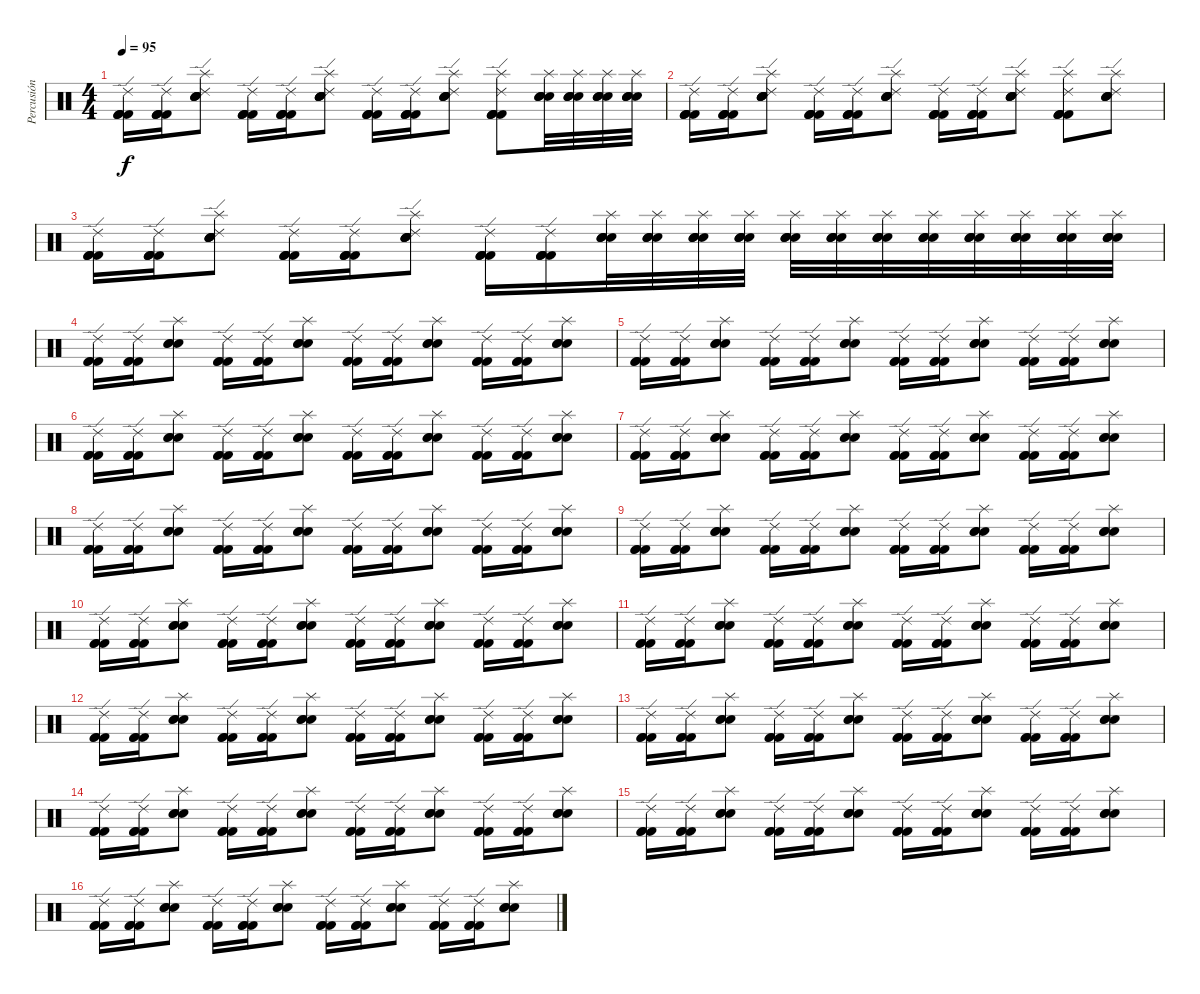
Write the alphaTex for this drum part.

\track ("Percusión" "Percusión") {instrument percussion}
\staff {score}
\articulation defaults
\ts (4 4)
\tempo 95
\clef neutral
\ks c
("Kick (hit) 2" "Kick (hit) 2" "Ride (edge) 2" "Kick (hit) 2" "Kick (hit) 2").16{dy f} ("Kick (hit) 2" "Kick (hit) 2" "Ride (edge) 2" "Kick (hit) 2" "Kick (hit) 2").16 ("Electric Snare (hit)" "Electric Snare (hit)" "Splash (hit)" "Ride (edge) 2" "Electric Snare (hit)" "Electric Snare (hit)").8 ("Kick (hit) 2" "Kick (hit) 2" "Ride (edge) 2" "Kick (hit) 2" "Kick (hit) 2").16 ("Kick (hit) 2" "Kick (hit) 2" "Ride (edge) 2" "Kick (hit) 2" "Kick (hit) 2").16 ("Electric Snare (hit)" "Electric Snare (hit)" "Splash (hit)" "Ride (edge) 2" "Electric Snare (hit)" "Electric Snare (hit)").8 ("Kick (hit) 2" "Kick (hit) 2" "Ride (edge) 2" "Kick (hit) 2" "Kick (hit) 2").16 ("Kick (hit) 2" "Kick (hit) 2" "Ride (edge) 2" "Kick (hit) 2" "Kick (hit) 2").16 ("Electric Snare (hit)" "Electric Snare (hit)" "Splash (hit)" "Ride (edge) 2" "Electric Snare (hit)" "Electric Snare (hit)").8 ("Kick (hit) 2" "Kick (hit) 2" "Splash (hit)" "Ride (edge) 2" "Kick (hit) 2" "Kick (hit) 2").8 ("Electric Snare (hit)" "Electric Snare (hit)" "Splash (hit)" "Electric Snare (hit)" "Electric Snare (hit)").32 ("Electric Snare (hit)" "Electric Snare (hit)" "Splash (hit)" "Electric Snare (hit)" "Electric Snare (hit)").32 ("Electric Snare (hit)" "Electric Snare (hit)" "Splash (hit)" "Electric Snare (hit)" "Electric Snare (hit)").32 ("Electric Snare (hit)" "Electric Snare (hit)" "Splash (hit)" "Electric Snare (hit)" "Electric Snare (hit)").32 |
("Kick (hit) 2" "Kick (hit) 2" "Ride (edge) 2" "Kick (hit) 2" "Kick (hit) 2").16 ("Kick (hit) 2" "Kick (hit) 2" "Ride (edge) 2" "Kick (hit) 2" "Kick (hit) 2").16 ("Electric Snare (hit)" "Electric Snare (hit)" "Splash (hit)" "Ride (edge) 2" "Electric Snare (hit)" "Electric Snare (hit)").8 ("Kick (hit) 2" "Kick (hit) 2" "Ride (edge) 2" "Kick (hit) 2" "Kick (hit) 2").16 ("Kick (hit) 2" "Kick (hit) 2" "Ride (edge) 2" "Kick (hit) 2" "Kick (hit) 2").16 ("Electric Snare (hit)" "Electric Snare (hit)" "Splash (hit)" "Ride (edge) 2" "Electric Snare (hit)" "Electric Snare (hit)").8 ("Kick (hit) 2" "Kick (hit) 2" "Ride (edge) 2" "Kick (hit) 2" "Kick (hit) 2").16 ("Kick (hit) 2" "Kick (hit) 2" "Ride (edge) 2" "Kick (hit) 2" "Kick (hit) 2").16 ("Electric Snare (hit)" "Electric Snare (hit)" "Splash (hit)" "Ride (edge) 2" "Electric Snare (hit)" "Electric Snare (hit)").8 ("Kick (hit) 2" "Kick (hit) 2" "Splash (hit)" "Ride (edge) 2" "Kick (hit) 2" "Kick (hit) 2").8 ("Electric Snare (hit)" "Electric Snare (hit)" "Splash (hit)" "Ride (edge) 2" "Electric Snare (hit)" "Electric Snare (hit)").8 |
("Kick (hit) 2" "Kick (hit) 2" "Ride (edge) 2" "Kick (hit) 2" "Kick (hit) 2").16 ("Kick (hit) 2" "Kick (hit) 2" "Ride (edge) 2" "Kick (hit) 2" "Kick (hit) 2").16 ("Electric Snare (hit)" "Electric Snare (hit)" "Splash (hit)" "Ride (edge) 2" "Electric Snare (hit)" "Electric Snare (hit)").8 ("Kick (hit) 2" "Kick (hit) 2" "Ride (edge) 2" "Kick (hit) 2" "Kick (hit) 2").16 ("Kick (hit) 2" "Kick (hit) 2" "Ride (edge) 2" "Kick (hit) 2" "Kick (hit) 2").16 ("Electric Snare (hit)" "Electric Snare (hit)" "Splash (hit)" "Ride (edge) 2" "Electric Snare (hit)" "Electric Snare (hit)").8 ("Kick (hit) 2" "Kick (hit) 2" "Ride (edge) 2" "Kick (hit) 2" "Kick (hit) 2").16 ("Kick (hit) 2" "Kick (hit) 2" "Ride (edge) 2" "Kick (hit) 2" "Kick (hit) 2").16 ("Electric Snare (hit)" "Electric Snare (hit)" "Splash (hit)" "Electric Snare (hit)" "Electric Snare (hit)").32 ("Electric Snare (hit)" "Electric Snare (hit)" "Splash (hit)" "Electric Snare (hit)" "Electric Snare (hit)").32 ("Electric Snare (hit)" "Electric Snare (hit)" "Splash (hit)" "Electric Snare (hit)" "Electric Snare (hit)").32 ("Electric Snare (hit)" "Electric Snare (hit)" "Splash (hit)" "Electric Snare (hit)" "Electric Snare (hit)").32 ("Electric Snare (hit)" "Electric Snare (hit)" "Splash (hit)" "Electric Snare (hit)" "Electric Snare (hit)").32 ("Electric Snare (hit)" "Electric Snare (hit)" "Splash (hit)" "Electric Snare (hit)" "Electric Snare (hit)").32 ("Electric Snare (hit)" "Electric Snare (hit)" "Splash (hit)" "Electric Snare (hit)" "Electric Snare (hit)").32 ("Electric Snare (hit)" "Electric Snare (hit)" "Splash (hit)" "Electric Snare (hit)" "Electric Snare (hit)").32 ("Electric Snare (hit)" "Electric Snare (hit)" "Splash (hit)" "Electric Snare (hit)" "Electric Snare (hit)").32 ("Electric Snare (hit)" "Electric Snare (hit)" "Splash (hit)" "Electric Snare (hit)" "Electric Snare (hit)").32 ("Electric Snare (hit)" "Electric Snare (hit)" "Splash (hit)" "Electric Snare (hit)" "Electric Snare (hit)").32 ("Electric Snare (hit)" "Electric Snare (hit)" "Splash (hit)" "Electric Snare (hit)" "Electric Snare (hit)").32 |
("Kick (hit) 2" "Ride (edge) 2" "Kick (hit) 2" "Kick (hit) 2").16 ("Kick (hit) 2" "Ride (edge) 2" "Kick (hit) 2" "Kick (hit) 2").16 ("Electric Snare (hit)" "Splash (hit)" "Electric Snare (hit)" "Electric Snare (hit)").8 ("Kick (hit) 2" "Ride (edge) 2" "Kick (hit) 2" "Kick (hit) 2").16 ("Kick (hit) 2" "Ride (edge) 2" "Kick (hit) 2" "Kick (hit) 2").16 ("Electric Snare (hit)" "Splash (hit)" "Electric Snare (hit)" "Electric Snare (hit)").8 ("Kick (hit) 2" "Ride (edge) 2" "Kick (hit) 2" "Kick (hit) 2").16 ("Kick (hit) 2" "Ride (edge) 2" "Kick (hit) 2" "Kick (hit) 2").16 ("Electric Snare (hit)" "Splash (hit)" "Electric Snare (hit)" "Electric Snare (hit)").8 ("Kick (hit) 2" "Ride (edge) 2" "Kick (hit) 2" "Kick (hit) 2").16 ("Kick (hit) 2" "Ride (edge) 2" "Kick (hit) 2" "Kick (hit) 2").16 ("Electric Snare (hit)" "Splash (hit)" "Electric Snare (hit)" "Electric Snare (hit)").8 |
("Kick (hit) 2" "Ride (edge) 2" "Kick (hit) 2" "Kick (hit) 2").16 ("Kick (hit) 2" "Ride (edge) 2" "Kick (hit) 2" "Kick (hit) 2").16 ("Electric Snare (hit)" "Splash (hit)" "Electric Snare (hit)" "Electric Snare (hit)").8 ("Kick (hit) 2" "Ride (edge) 2" "Kick (hit) 2" "Kick (hit) 2").16 ("Kick (hit) 2" "Ride (edge) 2" "Kick (hit) 2" "Kick (hit) 2").16 ("Electric Snare (hit)" "Splash (hit)" "Electric Snare (hit)" "Electric Snare (hit)").8 ("Kick (hit) 2" "Ride (edge) 2" "Kick (hit) 2" "Kick (hit) 2").16 ("Kick (hit) 2" "Ride (edge) 2" "Kick (hit) 2" "Kick (hit) 2").16 ("Electric Snare (hit)" "Splash (hit)" "Electric Snare (hit)" "Electric Snare (hit)").8 ("Kick (hit) 2" "Ride (edge) 2" "Kick (hit) 2" "Kick (hit) 2").16 ("Kick (hit) 2" "Ride (edge) 2" "Kick (hit) 2" "Kick (hit) 2").16 ("Electric Snare (hit)" "Splash (hit)" "Electric Snare (hit)" "Electric Snare (hit)").8 |
("Kick (hit) 2" "Ride (edge) 2" "Kick (hit) 2" "Kick (hit) 2").16 ("Kick (hit) 2" "Ride (edge) 2" "Kick (hit) 2" "Kick (hit) 2").16 ("Electric Snare (hit)" "Splash (hit)" "Electric Snare (hit)" "Electric Snare (hit)").8 ("Kick (hit) 2" "Ride (edge) 2" "Kick (hit) 2" "Kick (hit) 2").16 ("Kick (hit) 2" "Ride (edge) 2" "Kick (hit) 2" "Kick (hit) 2").16 ("Electric Snare (hit)" "Splash (hit)" "Electric Snare (hit)" "Electric Snare (hit)").8 ("Kick (hit) 2" "Ride (edge) 2" "Kick (hit) 2" "Kick (hit) 2").16 ("Kick (hit) 2" "Ride (edge) 2" "Kick (hit) 2" "Kick (hit) 2").16 ("Electric Snare (hit)" "Splash (hit)" "Electric Snare (hit)" "Electric Snare (hit)").8 ("Kick (hit) 2" "Ride (edge) 2" "Kick (hit) 2" "Kick (hit) 2").16 ("Kick (hit) 2" "Ride (edge) 2" "Kick (hit) 2" "Kick (hit) 2").16 ("Electric Snare (hit)" "Splash (hit)" "Electric Snare (hit)" "Electric Snare (hit)").8 |
("Kick (hit) 2" "Ride (edge) 2" "Kick (hit) 2" "Kick (hit) 2").16 ("Kick (hit) 2" "Ride (edge) 2" "Kick (hit) 2" "Kick (hit) 2").16 ("Electric Snare (hit)" "Splash (hit)" "Electric Snare (hit)" "Electric Snare (hit)").8 ("Kick (hit) 2" "Ride (edge) 2" "Kick (hit) 2" "Kick (hit) 2").16 ("Kick (hit) 2" "Ride (edge) 2" "Kick (hit) 2" "Kick (hit) 2").16 ("Electric Snare (hit)" "Splash (hit)" "Electric Snare (hit)" "Electric Snare (hit)").8 ("Kick (hit) 2" "Ride (edge) 2" "Kick (hit) 2" "Kick (hit) 2").16 ("Kick (hit) 2" "Ride (edge) 2" "Kick (hit) 2" "Kick (hit) 2").16 ("Electric Snare (hit)" "Splash (hit)" "Electric Snare (hit)" "Electric Snare (hit)").8 ("Kick (hit) 2" "Ride (edge) 2" "Kick (hit) 2" "Kick (hit) 2").16 ("Kick (hit) 2" "Ride (edge) 2" "Kick (hit) 2" "Kick (hit) 2").16 ("Electric Snare (hit)" "Splash (hit)" "Electric Snare (hit)" "Electric Snare (hit)").8 |
("Kick (hit) 2" "Ride (edge) 2" "Kick (hit) 2" "Kick (hit) 2").16 ("Kick (hit) 2" "Ride (edge) 2" "Kick (hit) 2" "Kick (hit) 2").16 ("Electric Snare (hit)" "Splash (hit)" "Electric Snare (hit)" "Electric Snare (hit)").8 ("Kick (hit) 2" "Ride (edge) 2" "Kick (hit) 2" "Kick (hit) 2").16 ("Kick (hit) 2" "Ride (edge) 2" "Kick (hit) 2" "Kick (hit) 2").16 ("Electric Snare (hit)" "Splash (hit)" "Electric Snare (hit)" "Electric Snare (hit)").8 ("Kick (hit) 2" "Ride (edge) 2" "Kick (hit) 2" "Kick (hit) 2").16 ("Kick (hit) 2" "Ride (edge) 2" "Kick (hit) 2" "Kick (hit) 2").16 ("Electric Snare (hit)" "Splash (hit)" "Electric Snare (hit)" "Electric Snare (hit)").8 ("Kick (hit) 2" "Ride (edge) 2" "Kick (hit) 2" "Kick (hit) 2").16 ("Kick (hit) 2" "Ride (edge) 2" "Kick (hit) 2" "Kick (hit) 2").16 ("Electric Snare (hit)" "Splash (hit)" "Electric Snare (hit)" "Electric Snare (hit)").8 |
("Kick (hit) 2" "Ride (edge) 2" "Kick (hit) 2" "Kick (hit) 2").16 ("Kick (hit) 2" "Ride (edge) 2" "Kick (hit) 2" "Kick (hit) 2").16 ("Electric Snare (hit)" "Splash (hit)" "Electric Snare (hit)" "Electric Snare (hit)").8 ("Kick (hit) 2" "Ride (edge) 2" "Kick (hit) 2" "Kick (hit) 2").16 ("Kick (hit) 2" "Ride (edge) 2" "Kick (hit) 2" "Kick (hit) 2").16 ("Electric Snare (hit)" "Splash (hit)" "Electric Snare (hit)" "Electric Snare (hit)").8 ("Kick (hit) 2" "Ride (edge) 2" "Kick (hit) 2" "Kick (hit) 2").16 ("Kick (hit) 2" "Ride (edge) 2" "Kick (hit) 2" "Kick (hit) 2").16 ("Electric Snare (hit)" "Splash (hit)" "Electric Snare (hit)" "Electric Snare (hit)").8 ("Kick (hit) 2" "Ride (edge) 2" "Kick (hit) 2" "Kick (hit) 2").16 ("Kick (hit) 2" "Ride (edge) 2" "Kick (hit) 2" "Kick (hit) 2").16 ("Electric Snare (hit)" "Splash (hit)" "Electric Snare (hit)" "Electric Snare (hit)").8 |
("Kick (hit) 2" "Ride (edge) 2" "Kick (hit) 2" "Kick (hit) 2").16 ("Kick (hit) 2" "Ride (edge) 2" "Kick (hit) 2" "Kick (hit) 2").16 ("Electric Snare (hit)" "Splash (hit)" "Electric Snare (hit)" "Electric Snare (hit)").8 ("Kick (hit) 2" "Ride (edge) 2" "Kick (hit) 2" "Kick (hit) 2").16 ("Kick (hit) 2" "Ride (edge) 2" "Kick (hit) 2" "Kick (hit) 2").16 ("Electric Snare (hit)" "Splash (hit)" "Electric Snare (hit)" "Electric Snare (hit)").8 ("Kick (hit) 2" "Ride (edge) 2" "Kick (hit) 2" "Kick (hit) 2").16 ("Kick (hit) 2" "Ride (edge) 2" "Kick (hit) 2" "Kick (hit) 2").16 ("Electric Snare (hit)" "Splash (hit)" "Electric Snare (hit)" "Electric Snare (hit)").8 ("Kick (hit) 2" "Ride (edge) 2" "Kick (hit) 2" "Kick (hit) 2").16 ("Kick (hit) 2" "Ride (edge) 2" "Kick (hit) 2" "Kick (hit) 2").16 ("Electric Snare (hit)" "Splash (hit)" "Electric Snare (hit)" "Electric Snare (hit)").8 |
("Kick (hit) 2" "Ride (edge) 2" "Kick (hit) 2" "Kick (hit) 2").16 ("Kick (hit) 2" "Ride (edge) 2" "Kick (hit) 2" "Kick (hit) 2").16 ("Electric Snare (hit)" "Splash (hit)" "Electric Snare (hit)" "Electric Snare (hit)").8 ("Kick (hit) 2" "Ride (edge) 2" "Kick (hit) 2" "Kick (hit) 2").16 ("Kick (hit) 2" "Ride (edge) 2" "Kick (hit) 2" "Kick (hit) 2").16 ("Electric Snare (hit)" "Splash (hit)" "Electric Snare (hit)" "Electric Snare (hit)").8 ("Kick (hit) 2" "Ride (edge) 2" "Kick (hit) 2" "Kick (hit) 2").16 ("Kick (hit) 2" "Ride (edge) 2" "Kick (hit) 2" "Kick (hit) 2").16 ("Electric Snare (hit)" "Splash (hit)" "Electric Snare (hit)" "Electric Snare (hit)").8 ("Kick (hit) 2" "Ride (edge) 2" "Kick (hit) 2" "Kick (hit) 2").16 ("Kick (hit) 2" "Ride (edge) 2" "Kick (hit) 2" "Kick (hit) 2").16 ("Electric Snare (hit)" "Splash (hit)" "Electric Snare (hit)" "Electric Snare (hit)").8 |
("Kick (hit) 2" "Ride (edge) 2" "Kick (hit) 2" "Kick (hit) 2").16 ("Kick (hit) 2" "Ride (edge) 2" "Kick (hit) 2" "Kick (hit) 2").16 ("Electric Snare (hit)" "Splash (hit)" "Electric Snare (hit)" "Electric Snare (hit)").8 ("Kick (hit) 2" "Ride (edge) 2" "Kick (hit) 2" "Kick (hit) 2").16 ("Kick (hit) 2" "Ride (edge) 2" "Kick (hit) 2" "Kick (hit) 2").16 ("Electric Snare (hit)" "Splash (hit)" "Electric Snare (hit)" "Electric Snare (hit)").8 ("Kick (hit) 2" "Ride (edge) 2" "Kick (hit) 2" "Kick (hit) 2").16 ("Kick (hit) 2" "Ride (edge) 2" "Kick (hit) 2" "Kick (hit) 2").16 ("Electric Snare (hit)" "Splash (hit)" "Electric Snare (hit)" "Electric Snare (hit)").8 ("Kick (hit) 2" "Ride (edge) 2" "Kick (hit) 2" "Kick (hit) 2").16 ("Kick (hit) 2" "Ride (edge) 2" "Kick (hit) 2" "Kick (hit) 2").16 ("Electric Snare (hit)" "Splash (hit)" "Electric Snare (hit)" "Electric Snare (hit)").8 |
("Kick (hit) 2" "Ride (edge) 2" "Kick (hit) 2" "Kick (hit) 2").16 ("Kick (hit) 2" "Ride (edge) 2" "Kick (hit) 2" "Kick (hit) 2").16 ("Electric Snare (hit)" "Splash (hit)" "Electric Snare (hit)" "Electric Snare (hit)").8 ("Kick (hit) 2" "Ride (edge) 2" "Kick (hit) 2" "Kick (hit) 2").16 ("Kick (hit) 2" "Ride (edge) 2" "Kick (hit) 2" "Kick (hit) 2").16 ("Electric Snare (hit)" "Splash (hit)" "Electric Snare (hit)" "Electric Snare (hit)").8 ("Kick (hit) 2" "Ride (edge) 2" "Kick (hit) 2" "Kick (hit) 2").16 ("Kick (hit) 2" "Ride (edge) 2" "Kick (hit) 2" "Kick (hit) 2").16 ("Electric Snare (hit)" "Splash (hit)" "Electric Snare (hit)" "Electric Snare (hit)").8 ("Kick (hit) 2" "Ride (edge) 2" "Kick (hit) 2" "Kick (hit) 2").16 ("Kick (hit) 2" "Ride (edge) 2" "Kick (hit) 2" "Kick (hit) 2").16 ("Electric Snare (hit)" "Splash (hit)" "Electric Snare (hit)" "Electric Snare (hit)").8 |
("Kick (hit) 2" "Ride (edge) 2" "Kick (hit) 2" "Kick (hit) 2").16 ("Kick (hit) 2" "Ride (edge) 2" "Kick (hit) 2" "Kick (hit) 2").16 ("Electric Snare (hit)" "Splash (hit)" "Electric Snare (hit)" "Electric Snare (hit)").8 ("Kick (hit) 2" "Ride (edge) 2" "Kick (hit) 2" "Kick (hit) 2").16 ("Kick (hit) 2" "Ride (edge) 2" "Kick (hit) 2" "Kick (hit) 2").16 ("Electric Snare (hit)" "Splash (hit)" "Electric Snare (hit)" "Electric Snare (hit)").8 ("Kick (hit) 2" "Ride (edge) 2" "Kick (hit) 2" "Kick (hit) 2").16 ("Kick (hit) 2" "Ride (edge) 2" "Kick (hit) 2" "Kick (hit) 2").16 ("Electric Snare (hit)" "Splash (hit)" "Electric Snare (hit)" "Electric Snare (hit)").8 ("Kick (hit) 2" "Ride (edge) 2" "Kick (hit) 2" "Kick (hit) 2").16 ("Kick (hit) 2" "Ride (edge) 2" "Kick (hit) 2" "Kick (hit) 2").16 ("Electric Snare (hit)" "Splash (hit)" "Electric Snare (hit)" "Electric Snare (hit)").8 |
("Kick (hit) 2" "Ride (edge) 2" "Kick (hit) 2" "Kick (hit) 2").16 ("Kick (hit) 2" "Ride (edge) 2" "Kick (hit) 2" "Kick (hit) 2").16 ("Electric Snare (hit)" "Splash (hit)" "Electric Snare (hit)" "Electric Snare (hit)").8 ("Kick (hit) 2" "Ride (edge) 2" "Kick (hit) 2" "Kick (hit) 2").16 ("Kick (hit) 2" "Ride (edge) 2" "Kick (hit) 2" "Kick (hit) 2").16 ("Electric Snare (hit)" "Splash (hit)" "Electric Snare (hit)" "Electric Snare (hit)").8 ("Kick (hit) 2" "Ride (edge) 2" "Kick (hit) 2" "Kick (hit) 2").16 ("Kick (hit) 2" "Ride (edge) 2" "Kick (hit) 2" "Kick (hit) 2").16 ("Electric Snare (hit)" "Splash (hit)" "Electric Snare (hit)" "Electric Snare (hit)").8 ("Kick (hit) 2" "Ride (edge) 2" "Kick (hit) 2" "Kick (hit) 2").16 ("Kick (hit) 2" "Ride (edge) 2" "Kick (hit) 2" "Kick (hit) 2").16 ("Electric Snare (hit)" "Splash (hit)" "Electric Snare (hit)" "Electric Snare (hit)").8 |
("Kick (hit) 2" "Ride (edge) 2" "Kick (hit) 2" "Kick (hit) 2").16 ("Kick (hit) 2" "Ride (edge) 2" "Kick (hit) 2" "Kick (hit) 2").16 ("Electric Snare (hit)" "Splash (hit)" "Electric Snare (hit)" "Electric Snare (hit)").8 ("Kick (hit) 2" "Ride (edge) 2" "Kick (hit) 2" "Kick (hit) 2").16 ("Kick (hit) 2" "Ride (edge) 2" "Kick (hit) 2" "Kick (hit) 2").16 ("Electric Snare (hit)" "Splash (hit)" "Electric Snare (hit)" "Electric Snare (hit)").8 ("Kick (hit) 2" "Ride (edge) 2" "Kick (hit) 2" "Kick (hit) 2").16 ("Kick (hit) 2" "Ride (edge) 2" "Kick (hit) 2" "Kick (hit) 2").16 ("Electric Snare (hit)" "Splash (hit)" "Electric Snare (hit)" "Electric Snare (hit)").8 ("Kick (hit) 2" "Ride (edge) 2" "Kick (hit) 2" "Kick (hit) 2").16 ("Kick (hit) 2" "Ride (edge) 2" "Kick (hit) 2" "Kick (hit) 2").16 ("Electric Snare (hit)" "Splash (hit)" "Electric Snare (hit)" "Electric Snare (hit)").8
